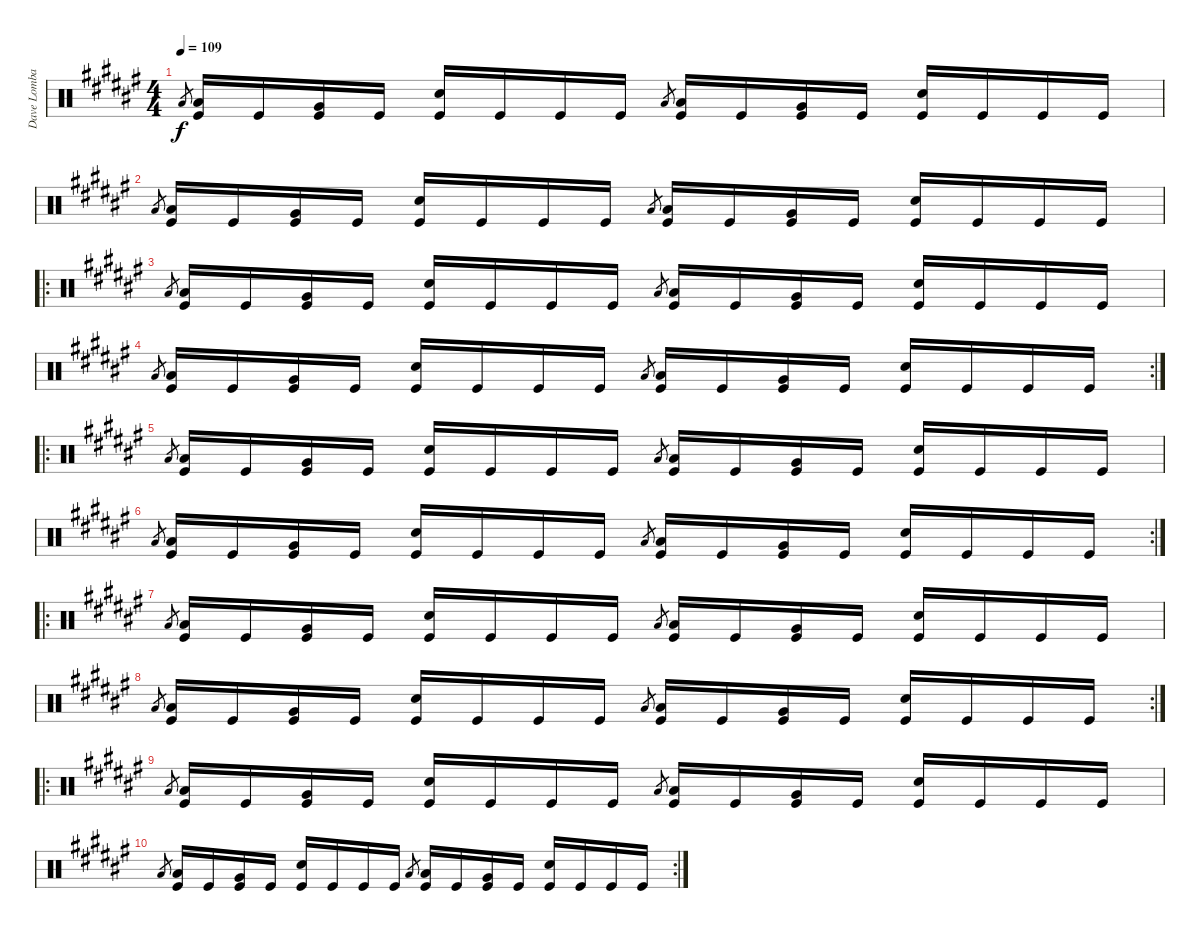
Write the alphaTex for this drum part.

\track ("Dave Lombardo" "Dave Lomba") {instrument percussion}
\staff {score}
\articulation defaults
\ts (4 4)
\tempo 109
\clef neutral
\ks f# "Low Tom (hit)".8{gr dy f}
("Low Tom (hit)" "Kick (hit)").16 "Kick (hit)".16 ("Very Low Tom (hit)" "Kick (hit)").16 "Kick (hit)".16 ("Snare (hit) 2" "Kick (hit)").16 "Kick (hit)".16 "Kick (hit)".16 "Kick (hit)".16 "Low Tom (hit)".8{gr} ("Low Tom (hit)" "Kick (hit)").16 "Kick (hit)".16 ("Very Low Tom (hit)" "Kick (hit)").16 "Kick (hit)".16 ("Snare (hit) 2" "Kick (hit)").16 "Kick (hit)".16 "Kick (hit)".16 "Kick (hit)".16 |
"Low Tom (hit)".8{gr} ("Low Tom (hit)" "Kick (hit)").16 "Kick (hit)".16 ("Very Low Tom (hit)" "Kick (hit)").16 "Kick (hit)".16 ("Snare (hit) 2" "Kick (hit)").16 "Kick (hit)".16 "Kick (hit)".16 "Kick (hit)".16 "Low Tom (hit)".8{gr} ("Low Tom (hit)" "Kick (hit)").16 "Kick (hit)".16 ("Very Low Tom (hit)" "Kick (hit)").16 "Kick (hit)".16 ("Snare (hit) 2" "Kick (hit)").16 "Kick (hit)".16 "Kick (hit)".16 "Kick (hit)".16 |
\ro "Low Tom (hit)".8{gr}
("Low Tom (hit)" "Kick (hit)").16 "Kick (hit)".16 ("Very Low Tom (hit)" "Kick (hit)").16 "Kick (hit)".16 ("Snare (hit) 2" "Kick (hit)").16 "Kick (hit)".16 "Kick (hit)".16 "Kick (hit)".16 "Low Tom (hit)".8{gr} ("Low Tom (hit)" "Kick (hit)").16 "Kick (hit)".16 ("Very Low Tom (hit)" "Kick (hit)").16 "Kick (hit)".16 ("Snare (hit) 2" "Kick (hit)").16 "Kick (hit)".16 "Kick (hit)".16 "Kick (hit)".16 |
\rc 2 "Low Tom (hit)".8{gr}
("Low Tom (hit)" "Kick (hit)").16 "Kick (hit)".16 ("Very Low Tom (hit)" "Kick (hit)").16 "Kick (hit)".16 ("Snare (hit) 2" "Kick (hit)").16 "Kick (hit)".16 "Kick (hit)".16 "Kick (hit)".16 "Low Tom (hit)".8{gr} ("Low Tom (hit)" "Kick (hit)").16 "Kick (hit)".16 ("Very Low Tom (hit)" "Kick (hit)").16 "Kick (hit)".16 ("Snare (hit) 2" "Kick (hit)").16 "Kick (hit)".16 "Kick (hit)".16 "Kick (hit)".16 |
\ro "Low Tom (hit)".8{gr}
("Low Tom (hit)" "Kick (hit)").16 "Kick (hit)".16 ("Very Low Tom (hit)" "Kick (hit)").16 "Kick (hit)".16 ("Snare (hit) 2" "Kick (hit)").16 "Kick (hit)".16 "Kick (hit)".16 "Kick (hit)".16 "Low Tom (hit)".8{gr} ("Low Tom (hit)" "Kick (hit)").16 "Kick (hit)".16 ("Very Low Tom (hit)" "Kick (hit)").16 "Kick (hit)".16 ("Snare (hit) 2" "Kick (hit)").16 "Kick (hit)".16 "Kick (hit)".16 "Kick (hit)".16 |
\rc 2 "Low Tom (hit)".8{gr}
("Low Tom (hit)" "Kick (hit)").16 "Kick (hit)".16 ("Very Low Tom (hit)" "Kick (hit)").16 "Kick (hit)".16 ("Snare (hit) 2" "Kick (hit)").16 "Kick (hit)".16 "Kick (hit)".16 "Kick (hit)".16 "Low Tom (hit)".8{gr} ("Low Tom (hit)" "Kick (hit)").16 "Kick (hit)".16 ("Very Low Tom (hit)" "Kick (hit)").16 "Kick (hit)".16 ("Snare (hit) 2" "Kick (hit)").16 "Kick (hit)".16 "Kick (hit)".16 "Kick (hit)".16 |
\ro "Low Tom (hit)".8{gr}
("Low Tom (hit)" "Kick (hit)").16 "Kick (hit)".16 ("Very Low Tom (hit)" "Kick (hit)").16 "Kick (hit)".16 ("Snare (hit) 2" "Kick (hit)").16 "Kick (hit)".16 "Kick (hit)".16 "Kick (hit)".16 "Low Tom (hit)".8{gr} ("Low Tom (hit)" "Kick (hit)").16 "Kick (hit)".16 ("Very Low Tom (hit)" "Kick (hit)").16 "Kick (hit)".16 ("Snare (hit) 2" "Kick (hit)").16 "Kick (hit)".16 "Kick (hit)".16 "Kick (hit)".16 |
\rc 2 "Low Tom (hit)".8{gr}
("Low Tom (hit)" "Kick (hit)").16 "Kick (hit)".16 ("Very Low Tom (hit)" "Kick (hit)").16 "Kick (hit)".16 ("Snare (hit) 2" "Kick (hit)").16 "Kick (hit)".16 "Kick (hit)".16 "Kick (hit)".16 "Low Tom (hit)".8{gr} ("Low Tom (hit)" "Kick (hit)").16 "Kick (hit)".16 ("Very Low Tom (hit)" "Kick (hit)").16 "Kick (hit)".16 ("Snare (hit) 2" "Kick (hit)").16 "Kick (hit)".16 "Kick (hit)".16 "Kick (hit)".16 |
\ro "Low Tom (hit)".8{gr}
("Low Tom (hit)" "Kick (hit)").16 "Kick (hit)".16 ("Very Low Tom (hit)" "Kick (hit)").16 "Kick (hit)".16 ("Snare (hit) 2" "Kick (hit)").16 "Kick (hit)".16 "Kick (hit)".16 "Kick (hit)".16 "Low Tom (hit)".8{gr} ("Low Tom (hit)" "Kick (hit)").16 "Kick (hit)".16 ("Very Low Tom (hit)" "Kick (hit)").16 "Kick (hit)".16 ("Snare (hit) 2" "Kick (hit)").16 "Kick (hit)".16 "Kick (hit)".16 "Kick (hit)".16 |
\rc 2 "Low Tom (hit)".8{gr}
("Low Tom (hit)" "Kick (hit)").16 "Kick (hit)".16 ("Very Low Tom (hit)" "Kick (hit)").16 "Kick (hit)".16 ("Snare (hit) 2" "Kick (hit)").16 "Kick (hit)".16 "Kick (hit)".16 "Kick (hit)".16 "Low Tom (hit)".8{gr} ("Low Tom (hit)" "Kick (hit)").16 "Kick (hit)".16 ("Very Low Tom (hit)" "Kick (hit)").16 "Kick (hit)".16 ("Snare (hit) 2" "Kick (hit)").16 "Kick (hit)".16 "Kick (hit)".16 "Kick (hit)".16
